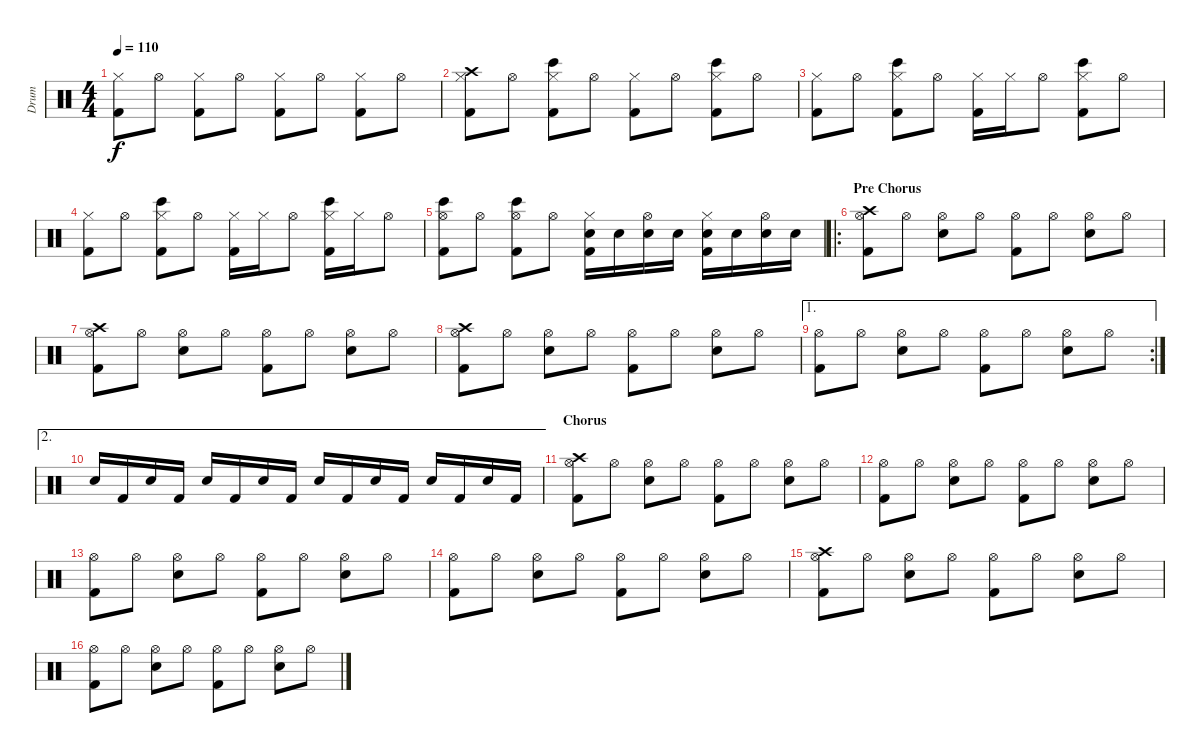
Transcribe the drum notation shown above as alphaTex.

\track ("Drum" "Drum") {instrument percussion}
\staff {score}
\articulation defaults
\ts (4 4)
\tempo 110
\clef neutral
\ks c
("Hi-Hat (closed)" "Kick (hit) 2").8{dy f} "Hi-Hat (open)".8 ("Hi-Hat (closed)" "Kick (hit) 2").8 "Hi-Hat (open)".8 ("Hi-Hat (closed)" "Kick (hit) 2").8 "Hi-Hat (open)".8 ("Hi-Hat (closed)" "Kick (hit) 2").8 "Hi-Hat (open)".8 |
("Crash high (hit)" "Hi-Hat (closed)" "Kick (hit) 2").8 "Hi-Hat (open)".8 ("Hi-Hat (closed)" "Bongo High (hit)" "Kick (hit) 2").8 "Hi-Hat (open)".8 ("Hi-Hat (closed)" "Kick (hit) 2").8 "Hi-Hat (open)".8 ("Hi-Hat (closed)" "Bongo High (hit)" "Kick (hit) 2").8 "Hi-Hat (open)".8 |
("Hi-Hat (closed)" "Kick (hit) 2").8 "Hi-Hat (open)".8 ("Hi-Hat (closed)" "Bongo High (hit)" "Kick (hit) 2").8 "Hi-Hat (open)".8 ("Hi-Hat (closed)" "Kick (hit) 2").16 "Hi-Hat (closed)".16 "Hi-Hat (open)".8 ("Hi-Hat (closed)" "Bongo High (hit)" "Kick (hit) 2").8 "Hi-Hat (open)".8 |
("Hi-Hat (closed)" "Kick (hit) 2").8 "Hi-Hat (open)".8 ("Hi-Hat (closed)" "Bongo High (hit)" "Kick (hit) 2").8 "Hi-Hat (open)".8 ("Hi-Hat (closed)" "Kick (hit) 2").16 "Hi-Hat (closed)".16 "Hi-Hat (open)".8 ("Hi-Hat (closed)" "Bongo High (hit)" "Kick (hit) 2").16 "Hi-Hat (closed)".16 "Hi-Hat (open)".8 |
("Hi-Hat (open)" "Bongo High (hit)" "Kick (hit) 2").8 "Hi-Hat (open)".8 ("Hi-Hat (open)" "Bongo High (hit)" "Kick (hit) 2").8 "Hi-Hat (open)".8 ("Hi-Hat (closed)" "Electric Snare (hit)" "Kick (hit) 2").16 "Electric Snare (hit)".16 ("Hi-Hat (open)" "Electric Snare (hit)").16 "Electric Snare (hit)".16 ("Hi-Hat (closed)" "Electric Snare (hit)" "Kick (hit) 2").16 "Electric Snare (hit)".16 ("Hi-Hat (open)" "Electric Snare (hit)").16 "Electric Snare (hit)".16 |
\ro
\section ("" "Pre Chorus")
("Crash high (hit)" "Hi-Hat (open)" "Kick (hit) 2").8 "Hi-Hat (open)".8 ("Hi-Hat (open)" "Electric Snare (hit)").8 "Hi-Hat (open)".8 ("Hi-Hat (open)" "Kick (hit) 2").8 "Hi-Hat (open)".8 ("Hi-Hat (open)" "Electric Snare (hit)").8 "Hi-Hat (open)".8 |
("Crash high (hit)" "Hi-Hat (open)" "Kick (hit) 2").8 "Hi-Hat (open)".8 ("Hi-Hat (open)" "Electric Snare (hit)").8 "Hi-Hat (open)".8 ("Hi-Hat (open)" "Kick (hit) 2").8 "Hi-Hat (open)".8 ("Hi-Hat (open)" "Electric Snare (hit)").8 "Hi-Hat (open)".8 |
("Crash high (hit)" "Hi-Hat (open)" "Kick (hit) 2").8 "Hi-Hat (open)".8 ("Hi-Hat (open)" "Electric Snare (hit)").8 "Hi-Hat (open)".8 ("Hi-Hat (open)" "Kick (hit) 2").8 "Hi-Hat (open)".8 ("Hi-Hat (open)" "Electric Snare (hit)").8 "Hi-Hat (open)".8 |
\ae 1
\rc 2
("Hi-Hat (open)" "Kick (hit) 2").8 "Hi-Hat (open)".8 ("Hi-Hat (open)" "Electric Snare (hit)").8 "Hi-Hat (open)".8 ("Hi-Hat (open)" "Kick (hit) 2").8 "Hi-Hat (open)".8 ("Hi-Hat (open)" "Electric Snare (hit)").8 "Hi-Hat (open)".8 |
\ae 2 "Electric Snare (hit)".16 "Kick (hit) 2".16 "Electric Snare (hit)".16 "Kick (hit) 2".16 "Electric Snare (hit)".16 "Kick (hit) 2".16 "Electric Snare (hit)".16 "Kick (hit) 2".16 "Electric Snare (hit)".16 "Kick (hit) 2".16 "Electric Snare (hit)".16 "Kick (hit) 2".16 "Electric Snare (hit)".16 "Kick (hit) 2".16 "Electric Snare (hit)".16 "Kick (hit) 2".16
|
\section ("" "Chorus")
("Crash high (hit)" "Hi-Hat (open)" "Kick (hit) 2").8 "Hi-Hat (open)".8 ("Hi-Hat (open)" "Electric Snare (hit)").8 "Hi-Hat (open)".8 ("Hi-Hat (open)" "Kick (hit) 2").8 "Hi-Hat (open)".8 ("Hi-Hat (open)" "Electric Snare (hit)").8 "Hi-Hat (open)".8 |
("Hi-Hat (open)" "Kick (hit) 2").8 "Hi-Hat (open)".8 ("Hi-Hat (open)" "Electric Snare (hit)").8 "Hi-Hat (open)".8 ("Hi-Hat (open)" "Kick (hit) 2").8 "Hi-Hat (open)".8 ("Hi-Hat (open)" "Electric Snare (hit)").8 "Hi-Hat (open)".8 |
("Hi-Hat (open)" "Kick (hit) 2").8 "Hi-Hat (open)".8 ("Hi-Hat (open)" "Electric Snare (hit)").8 "Hi-Hat (open)".8 ("Hi-Hat (open)" "Kick (hit) 2").8 "Hi-Hat (open)".8 ("Hi-Hat (open)" "Electric Snare (hit)").8 "Hi-Hat (open)".8 |
("Hi-Hat (open)" "Kick (hit) 2").8 "Hi-Hat (open)".8 ("Hi-Hat (open)" "Electric Snare (hit)").8 "Hi-Hat (open)".8 ("Hi-Hat (open)" "Kick (hit) 2").8 "Hi-Hat (open)".8 ("Hi-Hat (open)" "Electric Snare (hit)").8 "Hi-Hat (open)".8 |
("Crash high (hit)" "Hi-Hat (open)" "Kick (hit) 2").8 "Hi-Hat (open)".8 ("Hi-Hat (open)" "Electric Snare (hit)").8 "Hi-Hat (open)".8 ("Hi-Hat (open)" "Kick (hit) 2").8 "Hi-Hat (open)".8 ("Hi-Hat (open)" "Electric Snare (hit)").8 "Hi-Hat (open)".8 |
("Hi-Hat (open)" "Kick (hit) 2").8 "Hi-Hat (open)".8 ("Hi-Hat (open)" "Electric Snare (hit)").8 "Hi-Hat (open)".8 ("Hi-Hat (open)" "Kick (hit) 2").8 "Hi-Hat (open)".8 ("Hi-Hat (open)" "Electric Snare (hit)").8 "Hi-Hat (open)".8
